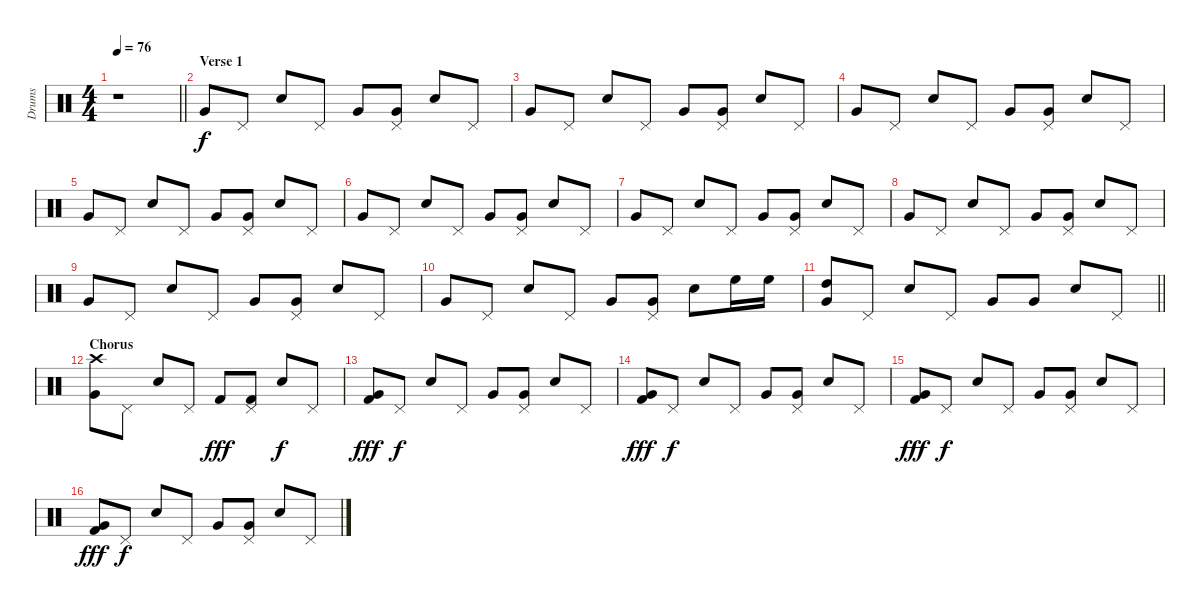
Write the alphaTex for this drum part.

\track ("Drums" "Drums") {instrument percussion}
\staff {score}
\articulation defaults
\ts (4 4)
\tempo 76
\clef neutral
\barLineRight lightlight
\ks c
r.1{dy f} |
\section ("" "Verse 1")
"Very Low Tom (hit)".8 "Pedal Hi-Hat (hit)".8 "Electric Snare (hit)".8 "Pedal Hi-Hat (hit)".8 "Very Low Tom (hit)".8 ("Very Low Tom (hit)" "Pedal Hi-Hat (hit)").8 "Electric Snare (hit)".8 "Pedal Hi-Hat (hit)".8 |
"Very Low Tom (hit)".8 "Pedal Hi-Hat (hit)".8 "Electric Snare (hit)".8 "Pedal Hi-Hat (hit)".8 "Very Low Tom (hit)".8 ("Very Low Tom (hit)" "Pedal Hi-Hat (hit)").8 "Electric Snare (hit)".8 "Pedal Hi-Hat (hit)".8 |
"Very Low Tom (hit)".8 "Pedal Hi-Hat (hit)".8 "Electric Snare (hit)".8 "Pedal Hi-Hat (hit)".8 "Very Low Tom (hit)".8 ("Very Low Tom (hit)" "Pedal Hi-Hat (hit)").8 "Electric Snare (hit)".8 "Pedal Hi-Hat (hit)".8 |
"Very Low Tom (hit)".8 "Pedal Hi-Hat (hit)".8 "Electric Snare (hit)".8 "Pedal Hi-Hat (hit)".8 "Very Low Tom (hit)".8 ("Very Low Tom (hit)" "Pedal Hi-Hat (hit)").8 "Electric Snare (hit)".8 "Pedal Hi-Hat (hit)".8 |
"Very Low Tom (hit)".8 "Pedal Hi-Hat (hit)".8 "Electric Snare (hit)".8 "Pedal Hi-Hat (hit)".8 "Very Low Tom (hit)".8 ("Very Low Tom (hit)" "Pedal Hi-Hat (hit)").8 "Electric Snare (hit)".8 "Pedal Hi-Hat (hit)".8 |
"Very Low Tom (hit)".8 "Pedal Hi-Hat (hit)".8 "Electric Snare (hit)".8 "Pedal Hi-Hat (hit)".8 "Very Low Tom (hit)".8 ("Very Low Tom (hit)" "Pedal Hi-Hat (hit)").8 "Electric Snare (hit)".8 "Pedal Hi-Hat (hit)".8 |
"Very Low Tom (hit)".8 "Pedal Hi-Hat (hit)".8 "Electric Snare (hit)".8 "Pedal Hi-Hat (hit)".8 "Very Low Tom (hit)".8 ("Very Low Tom (hit)" "Pedal Hi-Hat (hit)").8 "Electric Snare (hit)".8 "Pedal Hi-Hat (hit)".8 |
"Very Low Tom (hit)".8 "Pedal Hi-Hat (hit)".8 "Electric Snare (hit)".8 "Pedal Hi-Hat (hit)".8 "Very Low Tom (hit)".8 ("Very Low Tom (hit)" "Pedal Hi-Hat (hit)").8 "Electric Snare (hit)".8 "Pedal Hi-Hat (hit)".8 |
"Very Low Tom (hit)".8 "Pedal Hi-Hat (hit)".8 "Electric Snare (hit)".8 "Pedal Hi-Hat (hit)".8 "Very Low Tom (hit)".8 ("Very Low Tom (hit)" "Pedal Hi-Hat (hit)").8 "Electric Snare (hit)".8 "High Floor Tom (hit)".16 "High Floor Tom (hit)".16 |
\barLineRight lightlight
("High Tom (hit)" "Very Low Tom (hit)").8 "Pedal Hi-Hat (hit)".8 "Electric Snare (hit)".8 "Pedal Hi-Hat (hit)".8 "Very Low Tom (hit)".8 "Very Low Tom (hit)".8 "Electric Snare (hit)".8 "Pedal Hi-Hat (hit)".8 |
\section ("" "Chorus")
("Crash high (hit)" "Very Low Tom (hit)").8 "Pedal Hi-Hat (hit)".8 "Electric Snare (hit)".8 "Pedal Hi-Hat (hit)".8 "Kick (hit) 2".8{dy fff} ("Kick (hit) 2" "Pedal Hi-Hat (hit)").8 "Electric Snare (hit)".8{dy f} "Pedal Hi-Hat (hit)".8 |
("Kick (hit) 2" "Very Low Tom (hit)").8{dy fff} "Pedal Hi-Hat (hit)".8{dy f} "Electric Snare (hit)".8 "Pedal Hi-Hat (hit)".8 "Very Low Tom (hit)".8 ("Very Low Tom (hit)" "Pedal Hi-Hat (hit)").8 "Electric Snare (hit)".8 "Pedal Hi-Hat (hit)".8 |
("Kick (hit) 2" "Very Low Tom (hit)").8{dy fff} "Pedal Hi-Hat (hit)".8{dy f} "Electric Snare (hit)".8 "Pedal Hi-Hat (hit)".8 "Very Low Tom (hit)".8 ("Very Low Tom (hit)" "Pedal Hi-Hat (hit)").8 "Electric Snare (hit)".8 "Pedal Hi-Hat (hit)".8 |
("Kick (hit) 2" "Very Low Tom (hit)").8{dy fff} "Pedal Hi-Hat (hit)".8{dy f} "Electric Snare (hit)".8 "Pedal Hi-Hat (hit)".8 "Very Low Tom (hit)".8 ("Very Low Tom (hit)" "Pedal Hi-Hat (hit)").8 "Electric Snare (hit)".8 "Pedal Hi-Hat (hit)".8 |
("Kick (hit) 2" "Very Low Tom (hit)").8{dy fff} "Pedal Hi-Hat (hit)".8{dy f} "Electric Snare (hit)".8 "Pedal Hi-Hat (hit)".8 "Very Low Tom (hit)".8 ("Very Low Tom (hit)" "Pedal Hi-Hat (hit)").8 "Electric Snare (hit)".8 "Pedal Hi-Hat (hit)".8
